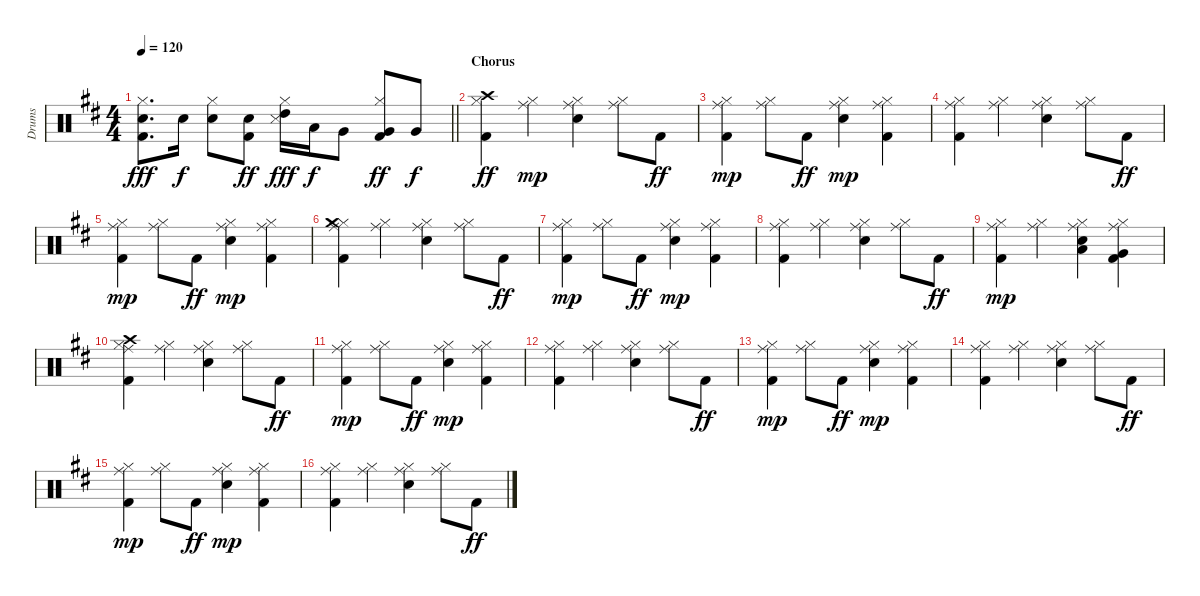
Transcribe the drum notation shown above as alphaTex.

\track ("Drums" "Drums") {instrument percussion}
\staff {score}
\articulation defaults
\ts (4 4)
\tempo 120
\clef neutral
\barLineRight lightlight
\ks d
("Kick (hit) 2" "Snare (hit) 2" "Hi-Hat (closed)").8{d dy fff} "Snare (hit) 2".16{dy f} ("Snare (hit) 2" "Hi-Hat (closed)").8 ("Kick (hit) 2" "Snare (hit) 2").8{dy ff} ("Snare (side stick) 3" "Hi-Hat (closed)" "High Tom (hit)").16{dy fff} "Low Tom (hit)".16{dy f} "Very Low Tom (hit)".8 ("Kick (hit) 2" "Hi-Hat (closed)" "Very Low Tom (hit)").8{dy ff} "Very Low Tom (hit)".8{dy f} |
\section ("" "Chorus")
("Kick (hit) 2" "Hi-Hat (closed)" "Crash high (hit)").4{dy ff} ("Hi-Hat (closed)" "Ride (middle)").4{dy mp} ("Snare (hit) 2" "Hi-Hat (closed)" "Ride (middle)").4 ("Hi-Hat (closed)" "Ride (middle)").8 "Kick (hit) 2".8{dy ff} |
("Kick (hit) 2" "Hi-Hat (closed)" "Ride (middle)").4{dy mp} ("Hi-Hat (closed)" "Ride (middle)").8 "Kick (hit) 2".8{dy ff} ("Snare (hit) 2" "Hi-Hat (closed)" "Ride (middle)").4{dy mp} ("Kick (hit) 2" "Hi-Hat (closed)" "Ride (middle)").4 |
("Kick (hit) 2" "Hi-Hat (closed)" "Ride (middle)").4 ("Hi-Hat (closed)" "Ride (middle)").4 ("Snare (hit) 2" "Hi-Hat (closed)" "Ride (middle)").4 ("Hi-Hat (closed)" "Ride (middle)").8 "Kick (hit) 2".8{dy ff} |
("Kick (hit) 2" "Hi-Hat (closed)" "Ride (middle)").4{dy mp} ("Hi-Hat (closed)" "Ride (middle)").8 "Kick (hit) 2".8{dy ff} ("Snare (hit) 2" "Hi-Hat (closed)" "Ride (middle)").4{dy mp} ("Kick (hit) 2" "Hi-Hat (closed)" "Ride (middle)").4 |
("Kick (hit) 2" "Hi-Hat (closed)" "Crash medium (hit)" "Ride (middle)").4 ("Hi-Hat (closed)" "Ride (middle)").4 ("Snare (hit) 2" "Hi-Hat (closed)" "Ride (middle)").4 ("Hi-Hat (closed)" "Ride (middle)").8 "Kick (hit) 2".8{dy ff} |
("Kick (hit) 2" "Hi-Hat (closed)" "Ride (middle)").4{dy mp} ("Hi-Hat (closed)" "Ride (middle)").8 "Kick (hit) 2".8{dy ff} ("Snare (hit) 2" "Hi-Hat (closed)" "Ride (middle)").4{dy mp} ("Kick (hit) 2" "Hi-Hat (closed)" "Ride (middle)").4 |
("Kick (hit) 2" "Hi-Hat (closed)" "Ride (middle)").4 ("Hi-Hat (closed)" "Ride (middle)").4 ("Snare (hit) 2" "Hi-Hat (closed)" "Ride (middle)").4 ("Hi-Hat (closed)" "Ride (middle)").8 "Kick (hit) 2".8{dy ff} |
("Kick (hit) 2" "Hi-Hat (closed)" "Ride (middle)").4{dy mp} ("Hi-Hat (closed)" "Ride (middle)").4 ("Snare (hit) 2" "Hi-Hat (closed)" "Low Tom (hit)" "Ride (middle)").4 ("Kick (hit) 2" "Hi-Hat (closed)" "Very Low Tom (hit)" "Ride (middle)").4 |
("Kick (hit) 2" "Hi-Hat (closed)" "Crash high (hit)" "Ride (middle)").4 ("Hi-Hat (closed)" "Ride (middle)").4 ("Snare (hit) 2" "Hi-Hat (closed)" "Ride (middle)").4 ("Hi-Hat (closed)" "Ride (middle)").8 "Kick (hit) 2".8{dy ff} |
("Kick (hit) 2" "Hi-Hat (closed)" "Ride (middle)").4{dy mp} ("Hi-Hat (closed)" "Ride (middle)").8 "Kick (hit) 2".8{dy ff} ("Snare (hit) 2" "Hi-Hat (closed)" "Ride (middle)").4{dy mp} ("Kick (hit) 2" "Hi-Hat (closed)" "Ride (middle)").4 |
("Kick (hit) 2" "Hi-Hat (closed)" "Ride (middle)").4 ("Hi-Hat (closed)" "Ride (middle)").4 ("Snare (hit) 2" "Hi-Hat (closed)" "Ride (middle)").4 ("Hi-Hat (closed)" "Ride (middle)").8 "Kick (hit) 2".8{dy ff} |
("Kick (hit) 2" "Hi-Hat (closed)" "Ride (middle)").4{dy mp} ("Hi-Hat (closed)" "Ride (middle)").8 "Kick (hit) 2".8{dy ff} ("Snare (hit) 2" "Hi-Hat (closed)" "Ride (middle)").4{dy mp} ("Kick (hit) 2" "Hi-Hat (closed)" "Ride (middle)").4 |
("Kick (hit) 2" "Hi-Hat (closed)" "Ride (middle)").4 ("Hi-Hat (closed)" "Ride (middle)").4 ("Snare (hit) 2" "Hi-Hat (closed)" "Ride (middle)").4 ("Hi-Hat (closed)" "Ride (middle)").8 "Kick (hit) 2".8{dy ff} |
("Kick (hit) 2" "Hi-Hat (closed)" "Ride (middle)").4{dy mp} ("Hi-Hat (closed)" "Ride (middle)").8 "Kick (hit) 2".8{dy ff} ("Snare (hit) 2" "Hi-Hat (closed)" "Ride (middle)").4{dy mp} ("Kick (hit) 2" "Hi-Hat (closed)" "Ride (middle)").4 |
("Kick (hit) 2" "Hi-Hat (closed)" "Ride (middle)").4 ("Hi-Hat (closed)" "Ride (middle)").4 ("Snare (hit) 2" "Hi-Hat (closed)" "Ride (middle)").4 ("Hi-Hat (closed)" "Ride (middle)").8 "Kick (hit) 2".8{dy ff}
